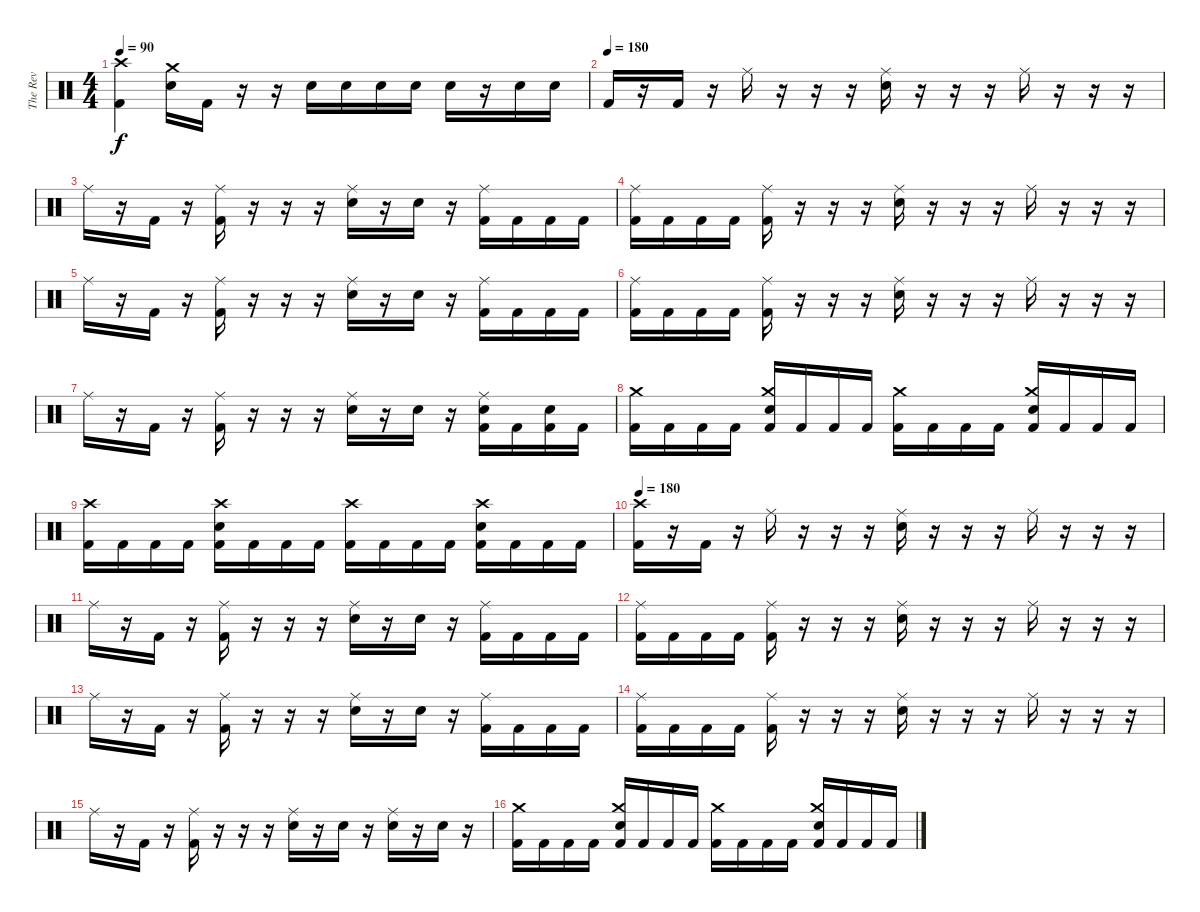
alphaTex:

\track ("The Rev" "The Rev") {instrument percussion}
\staff {score}
\articulation defaults
\ts (4 4)
\tempo 90
\clef neutral
\ks c
("Crash high (hit)" "Kick (hit) 2").4{dy f} ("Crash medium (hit)" "Snare (hit) 2").16 "Kick (hit) 2".16 r.16 r.16 "Snare (hit) 2".16 "Snare (hit) 2".16 "Snare (hit) 2".16 "Snare (hit) 2".16 "Snare (hit) 2".16 r.16 "Snare (hit) 2".16 "Snare (hit) 2".16 |
\tempo (180)
"Kick (hit) 2".16 r.16 "Kick (hit) 2".16 r.16 "Ride (middle)".16 r.16 r.16 r.16 ("Ride (middle)" "Snare (hit) 2").16 r.16 r.16 r.16 "Ride (middle)".16 r.16 r.16 r.16 |
"Ride (middle)".16 r.16 "Kick (hit) 2".16 r.16 ("Ride (middle)" "Kick (hit) 2").16 r.16 r.16 r.16 ("Ride (middle)" "Snare (hit) 2").16 r.16 "Snare (hit) 2".16 r.16 ("Ride (middle)" "Kick (hit) 2").16 "Kick (hit) 2".16 "Kick (hit) 2".16 "Kick (hit) 2".16 |
("Ride (middle)" "Kick (hit) 2").16 "Kick (hit) 2".16 "Kick (hit) 2".16 "Kick (hit) 2".16 ("Ride (middle)" "Kick (hit) 2").16 r.16 r.16 r.16 ("Ride (middle)" "Snare (hit) 2").16 r.16 r.16 r.16 "Ride (middle)".16 r.16 r.16 r.16 |
"Ride (middle)".16 r.16 "Kick (hit) 2".16 r.16 ("Ride (middle)" "Kick (hit) 2").16 r.16 r.16 r.16 ("Ride (middle)" "Snare (hit) 2").16 r.16 "Snare (hit) 2".16 r.16 ("Ride (middle)" "Kick (hit) 2").16 "Kick (hit) 2".16 "Kick (hit) 2".16 "Kick (hit) 2".16 |
("Ride (middle)" "Kick (hit) 2").16 "Kick (hit) 2".16 "Kick (hit) 2".16 "Kick (hit) 2".16 ("Ride (middle)" "Kick (hit) 2").16 r.16 r.16 r.16 ("Ride (middle)" "Snare (hit) 2").16 r.16 r.16 r.16 "Ride (middle)".16 r.16 r.16 r.16 |
"Ride (middle)".16 r.16 "Kick (hit) 2".16 r.16 ("Ride (middle)" "Kick (hit) 2").16 r.16 r.16 r.16 ("Ride (middle)" "Snare (hit) 2").16 r.16 "Snare (hit) 2".16 r.16 ("Ride (middle)" "Snare (hit) 2" "Kick (hit) 2").16 "Kick (hit) 2".16 ("Snare (hit) 2" "Kick (hit) 2").16 "Kick (hit) 2".16 |
("Crash medium (hit)" "Kick (hit) 2").16 "Kick (hit) 2".16 "Kick (hit) 2".16 "Kick (hit) 2".16 ("Crash medium (hit)" "Snare (hit) 2" "Kick (hit) 2").16 "Kick (hit) 2".16 "Kick (hit) 2".16 "Kick (hit) 2".16 ("Crash medium (hit)" "Kick (hit) 2").16 "Kick (hit) 2".16 "Kick (hit) 2".16 "Kick (hit) 2".16 ("Crash medium (hit)" "Snare (hit) 2" "Kick (hit) 2").16 "Kick (hit) 2".16 "Kick (hit) 2".16 "Kick (hit) 2".16 |
("Crash high (hit)" "Kick (hit) 2").16 "Kick (hit) 2".16 "Kick (hit) 2".16 "Kick (hit) 2".16 ("Crash high (hit)" "Snare (hit) 2" "Kick (hit) 2").16 "Kick (hit) 2".16 "Kick (hit) 2".16 "Kick (hit) 2".16 ("Crash high (hit)" "Kick (hit) 2").16 "Kick (hit) 2".16 "Kick (hit) 2".16 "Kick (hit) 2".16 ("Crash high (hit)" "Snare (hit) 2" "Kick (hit) 2").16 "Kick (hit) 2".16 "Kick (hit) 2".16 "Kick (hit) 2".16 |
\tempo 180
("Crash high (hit)" "Kick (hit) 2").16 r.16 "Kick (hit) 2".16 r.16 "Ride (middle)".16 r.16 r.16 r.16 ("Ride (middle)" "Snare (hit) 2").16 r.16 r.16 r.16 "Ride (middle)".16 r.16 r.16 r.16 |
"Ride (middle)".16 r.16 "Kick (hit) 2".16 r.16 ("Ride (middle)" "Kick (hit) 2").16 r.16 r.16 r.16 ("Ride (middle)" "Snare (hit) 2").16 r.16 "Snare (hit) 2".16 r.16 ("Ride (middle)" "Kick (hit) 2").16 "Kick (hit) 2".16 "Kick (hit) 2".16 "Kick (hit) 2".16 |
("Ride (middle)" "Kick (hit) 2").16 "Kick (hit) 2".16 "Kick (hit) 2".16 "Kick (hit) 2".16 ("Ride (middle)" "Kick (hit) 2").16 r.16 r.16 r.16 ("Ride (middle)" "Snare (hit) 2").16 r.16 r.16 r.16 "Ride (middle)".16 r.16 r.16 r.16 |
"Ride (middle)".16 r.16 "Kick (hit) 2".16 r.16 ("Ride (middle)" "Kick (hit) 2").16 r.16 r.16 r.16 ("Ride (middle)" "Snare (hit) 2").16 r.16 "Snare (hit) 2".16 r.16 ("Ride (middle)" "Kick (hit) 2").16 "Kick (hit) 2".16 "Kick (hit) 2".16 "Kick (hit) 2".16 |
("Ride (middle)" "Kick (hit) 2").16 "Kick (hit) 2".16 "Kick (hit) 2".16 "Kick (hit) 2".16 ("Ride (middle)" "Kick (hit) 2").16 r.16 r.16 r.16 ("Ride (middle)" "Snare (hit) 2").16 r.16 r.16 r.16 "Ride (middle)".16 r.16 r.16 r.16 |
"Ride (middle)".16 r.16 "Kick (hit) 2".16 r.16 ("Ride (middle)" "Kick (hit) 2").16 r.16 r.16 r.16 ("Ride (middle)" "Snare (hit) 2").16 r.16 "Snare (hit) 2".16 r.16 ("Ride (middle)" "Snare (hit) 2").16 r.16 "Snare (hit) 2".16 r.16 |
("Crash medium (hit)" "Kick (hit) 2").16 "Kick (hit) 2".16 "Kick (hit) 2".16 "Kick (hit) 2".16 ("Crash medium (hit)" "Snare (hit) 2" "Kick (hit) 2").16 "Kick (hit) 2".16 "Kick (hit) 2".16 "Kick (hit) 2".16 ("Crash medium (hit)" "Kick (hit) 2").16 "Kick (hit) 2".16 "Kick (hit) 2".16 "Kick (hit) 2".16 ("Crash medium (hit)" "Snare (hit) 2" "Kick (hit) 2").16 "Kick (hit) 2".16 "Kick (hit) 2".16 "Kick (hit) 2".16
